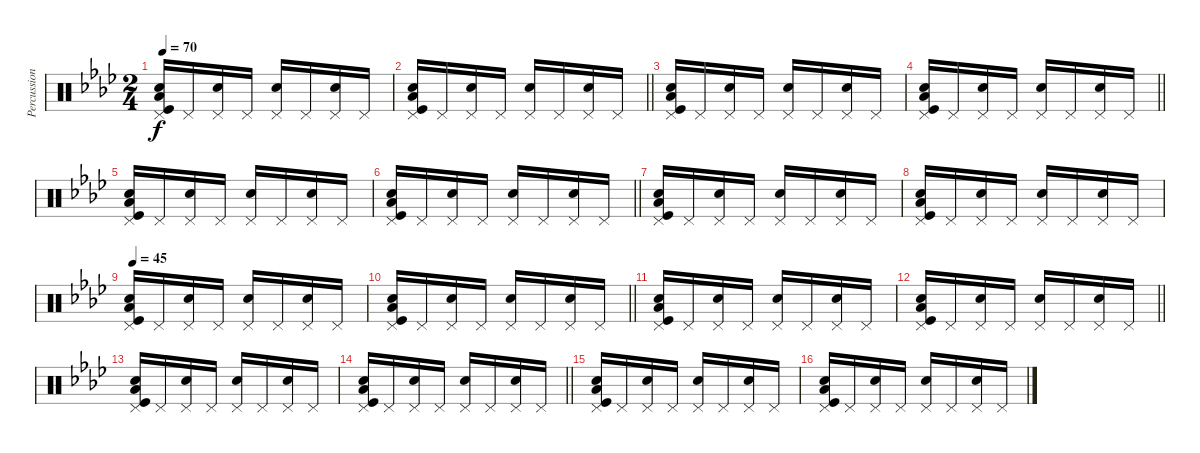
\track ("Percussions" "Percussion") {instrument percussion}
\staff {score}
\articulation defaults
\ts (2 4)
\tempo 70
\clef neutral
\ks fminor
("Electric Snare (hit)" "Kick (hit)" "Pedal Hi-Hat (hit)" "Low Floor Tom (hit)").16{dy f} "Pedal Hi-Hat (hit)".16 ("Electric Snare (hit)" "Pedal Hi-Hat (hit)").16 "Pedal Hi-Hat (hit)".16 ("Electric Snare (hit)" "Pedal Hi-Hat (hit)").16 "Pedal Hi-Hat (hit)".16 ("Electric Snare (hit)" "Pedal Hi-Hat (hit)").16 "Pedal Hi-Hat (hit)".16 |
\barLineRight lightlight
("Electric Snare (hit)" "Kick (hit)" "Pedal Hi-Hat (hit)" "Low Floor Tom (hit)").16 "Pedal Hi-Hat (hit)".16 ("Electric Snare (hit)" "Pedal Hi-Hat (hit)").16 "Pedal Hi-Hat (hit)".16 ("Electric Snare (hit)" "Pedal Hi-Hat (hit)").16 "Pedal Hi-Hat (hit)".16 ("Electric Snare (hit)" "Pedal Hi-Hat (hit)").16 "Pedal Hi-Hat (hit)".16 |
("Electric Snare (hit)" "Kick (hit)" "Pedal Hi-Hat (hit)" "Low Floor Tom (hit)").16 "Pedal Hi-Hat (hit)".16 ("Electric Snare (hit)" "Pedal Hi-Hat (hit)").16 "Pedal Hi-Hat (hit)".16 ("Electric Snare (hit)" "Pedal Hi-Hat (hit)").16 "Pedal Hi-Hat (hit)".16 ("Electric Snare (hit)" "Pedal Hi-Hat (hit)").16 "Pedal Hi-Hat (hit)".16 |
\barLineRight lightlight
("Electric Snare (hit)" "Kick (hit)" "Pedal Hi-Hat (hit)" "Low Floor Tom (hit)").16 "Pedal Hi-Hat (hit)".16 ("Electric Snare (hit)" "Pedal Hi-Hat (hit)").16 "Pedal Hi-Hat (hit)".16 ("Electric Snare (hit)" "Pedal Hi-Hat (hit)").16 "Pedal Hi-Hat (hit)".16 ("Electric Snare (hit)" "Pedal Hi-Hat (hit)").16 "Pedal Hi-Hat (hit)".16 |
("Electric Snare (hit)" "Kick (hit)" "Pedal Hi-Hat (hit)" "Low Floor Tom (hit)").16 "Pedal Hi-Hat (hit)".16 ("Electric Snare (hit)" "Pedal Hi-Hat (hit)").16 "Pedal Hi-Hat (hit)".16 ("Electric Snare (hit)" "Pedal Hi-Hat (hit)").16 "Pedal Hi-Hat (hit)".16 ("Electric Snare (hit)" "Pedal Hi-Hat (hit)").16 "Pedal Hi-Hat (hit)".16 |
\barLineRight lightlight
("Electric Snare (hit)" "Kick (hit)" "Pedal Hi-Hat (hit)" "Low Floor Tom (hit)").16 "Pedal Hi-Hat (hit)".16 ("Electric Snare (hit)" "Pedal Hi-Hat (hit)").16 "Pedal Hi-Hat (hit)".16 ("Electric Snare (hit)" "Pedal Hi-Hat (hit)").16 "Pedal Hi-Hat (hit)".16 ("Electric Snare (hit)" "Pedal Hi-Hat (hit)").16 "Pedal Hi-Hat (hit)".16 |
("Electric Snare (hit)" "Kick (hit)" "Pedal Hi-Hat (hit)" "Low Floor Tom (hit)").16 "Pedal Hi-Hat (hit)".16 ("Electric Snare (hit)" "Pedal Hi-Hat (hit)").16 "Pedal Hi-Hat (hit)".16 ("Electric Snare (hit)" "Pedal Hi-Hat (hit)").16 "Pedal Hi-Hat (hit)".16 ("Electric Snare (hit)" "Pedal Hi-Hat (hit)").16 "Pedal Hi-Hat (hit)".16 |
("Electric Snare (hit)" "Kick (hit)" "Pedal Hi-Hat (hit)" "Low Floor Tom (hit)").16 "Pedal Hi-Hat (hit)".16 ("Electric Snare (hit)" "Pedal Hi-Hat (hit)").16 "Pedal Hi-Hat (hit)".16 ("Electric Snare (hit)" "Pedal Hi-Hat (hit)").16 "Pedal Hi-Hat (hit)".16 ("Electric Snare (hit)" "Pedal Hi-Hat (hit)").16 "Pedal Hi-Hat (hit)".16 |
\tempo 45
("Electric Snare (hit)" "Kick (hit)" "Pedal Hi-Hat (hit)" "Low Floor Tom (hit)").16 "Pedal Hi-Hat (hit)".16 ("Electric Snare (hit)" "Pedal Hi-Hat (hit)").16 "Pedal Hi-Hat (hit)".16 ("Electric Snare (hit)" "Pedal Hi-Hat (hit)").16 "Pedal Hi-Hat (hit)".16 ("Electric Snare (hit)" "Pedal Hi-Hat (hit)").16 "Pedal Hi-Hat (hit)".16 |
\barLineRight lightlight
("Electric Snare (hit)" "Kick (hit)" "Pedal Hi-Hat (hit)" "Low Floor Tom (hit)").16 "Pedal Hi-Hat (hit)".16 ("Electric Snare (hit)" "Pedal Hi-Hat (hit)").16 "Pedal Hi-Hat (hit)".16 ("Electric Snare (hit)" "Pedal Hi-Hat (hit)").16 "Pedal Hi-Hat (hit)".16 ("Electric Snare (hit)" "Pedal Hi-Hat (hit)").16 "Pedal Hi-Hat (hit)".16 |
("Electric Snare (hit)" "Kick (hit)" "Pedal Hi-Hat (hit)" "Low Floor Tom (hit)").16 "Pedal Hi-Hat (hit)".16 ("Electric Snare (hit)" "Pedal Hi-Hat (hit)").16 "Pedal Hi-Hat (hit)".16 ("Electric Snare (hit)" "Pedal Hi-Hat (hit)").16 "Pedal Hi-Hat (hit)".16 ("Electric Snare (hit)" "Pedal Hi-Hat (hit)").16 "Pedal Hi-Hat (hit)".16 |
\barLineRight lightlight
("Electric Snare (hit)" "Kick (hit)" "Pedal Hi-Hat (hit)" "Low Floor Tom (hit)").16 "Pedal Hi-Hat (hit)".16 ("Electric Snare (hit)" "Pedal Hi-Hat (hit)").16 "Pedal Hi-Hat (hit)".16 ("Electric Snare (hit)" "Pedal Hi-Hat (hit)").16 "Pedal Hi-Hat (hit)".16 ("Electric Snare (hit)" "Pedal Hi-Hat (hit)").16 "Pedal Hi-Hat (hit)".16 |
("Electric Snare (hit)" "Kick (hit)" "Pedal Hi-Hat (hit)" "Low Floor Tom (hit)").16 "Pedal Hi-Hat (hit)".16 ("Electric Snare (hit)" "Pedal Hi-Hat (hit)").16 "Pedal Hi-Hat (hit)".16 ("Electric Snare (hit)" "Pedal Hi-Hat (hit)").16 "Pedal Hi-Hat (hit)".16 ("Electric Snare (hit)" "Pedal Hi-Hat (hit)").16 "Pedal Hi-Hat (hit)".16 |
\barLineRight lightlight
("Electric Snare (hit)" "Kick (hit)" "Pedal Hi-Hat (hit)" "Low Floor Tom (hit)").16 "Pedal Hi-Hat (hit)".16 ("Electric Snare (hit)" "Pedal Hi-Hat (hit)").16 "Pedal Hi-Hat (hit)".16 ("Electric Snare (hit)" "Pedal Hi-Hat (hit)").16 "Pedal Hi-Hat (hit)".16 ("Electric Snare (hit)" "Pedal Hi-Hat (hit)").16 "Pedal Hi-Hat (hit)".16 |
("Electric Snare (hit)" "Kick (hit)" "Pedal Hi-Hat (hit)" "Low Floor Tom (hit)").16 "Pedal Hi-Hat (hit)".16 ("Electric Snare (hit)" "Pedal Hi-Hat (hit)").16 "Pedal Hi-Hat (hit)".16 ("Electric Snare (hit)" "Pedal Hi-Hat (hit)").16 "Pedal Hi-Hat (hit)".16 ("Electric Snare (hit)" "Pedal Hi-Hat (hit)").16 "Pedal Hi-Hat (hit)".16 |
("Electric Snare (hit)" "Kick (hit)" "Pedal Hi-Hat (hit)" "Low Floor Tom (hit)").16 "Pedal Hi-Hat (hit)".16 ("Electric Snare (hit)" "Pedal Hi-Hat (hit)").16 "Pedal Hi-Hat (hit)".16 ("Electric Snare (hit)" "Pedal Hi-Hat (hit)").16 "Pedal Hi-Hat (hit)".16 ("Electric Snare (hit)" "Pedal Hi-Hat (hit)").16 "Pedal Hi-Hat (hit)".16
